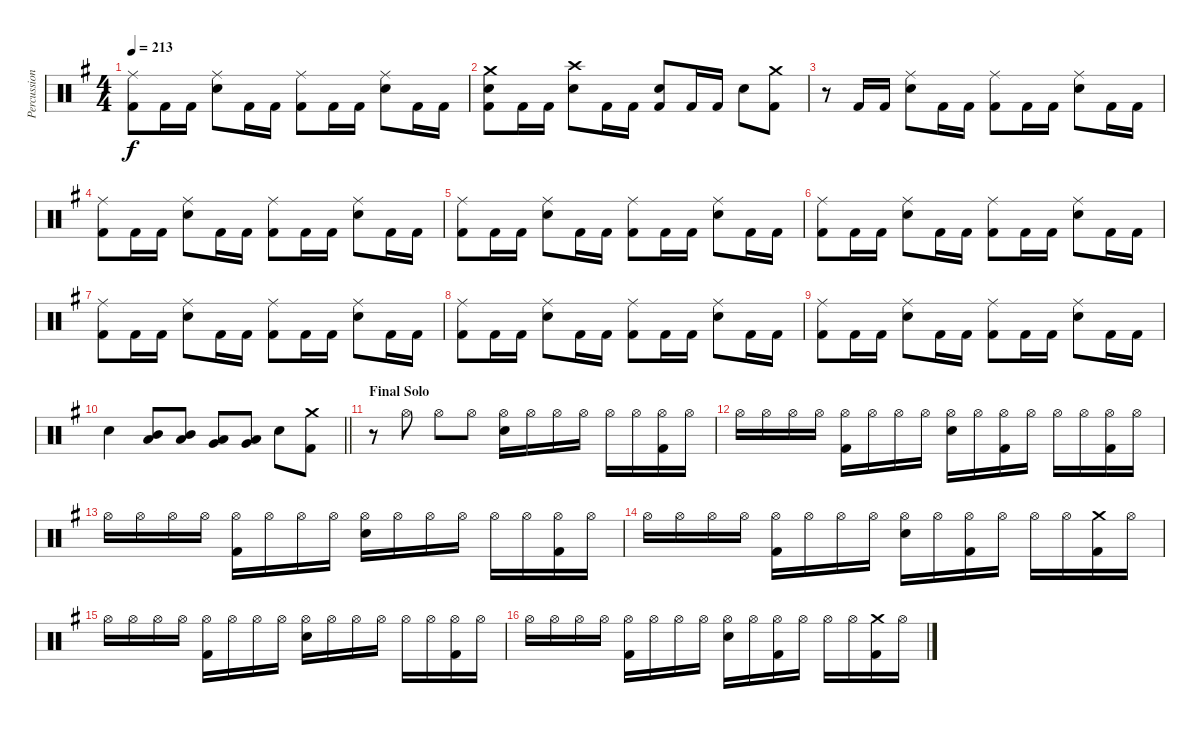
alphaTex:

\track ("Percussion" "Percussion") {instrument percussion}
\staff {score}
\articulation defaults
\ts (4 4)
\tempo 213
\clef neutral
\ks eminor
("Ride (middle)" "Kick (hit) 2").8{dy f} "Kick (hit) 2".16 "Kick (hit) 2".16 ("Ride (middle)" "Snare (hit) 2").8 "Kick (hit) 2".16 "Kick (hit) 2".16 ("Ride (middle)" "Kick (hit) 2").8 "Kick (hit) 2".16 "Kick (hit) 2".16 ("Ride (middle)" "Snare (hit) 2").8 "Kick (hit) 2".16 "Kick (hit) 2".16 |
("Crash medium (hit)" "Snare (hit) 2" "Kick (hit) 2").8 "Kick (hit) 2".16 "Kick (hit) 2".16 ("Crash high (hit)" "Snare (hit) 2").8 "Kick (hit) 2".16 "Kick (hit) 2".16 ("Snare (hit) 2" "Kick (hit) 2").8 "Kick (hit) 2".16 "Kick (hit) 2".16 "Snare (hit) 2".8 ("Crash medium (hit)" "Kick (hit) 2").8 |
r.8 "Kick (hit) 2".16 "Kick (hit) 2".16 ("Ride (middle)" "Snare (hit) 2").8 "Kick (hit) 2".16 "Kick (hit) 2".16 ("Ride (middle)" "Kick (hit) 2").8 "Kick (hit) 2".16 "Kick (hit) 2".16 ("Ride (middle)" "Snare (hit) 2").8 "Kick (hit) 2".16 "Kick (hit) 2".16 |
("Ride (middle)" "Kick (hit) 2").8 "Kick (hit) 2".16 "Kick (hit) 2".16 ("Ride (middle)" "Snare (hit) 2").8 "Kick (hit) 2".16 "Kick (hit) 2".16 ("Ride (middle)" "Kick (hit) 2").8 "Kick (hit) 2".16 "Kick (hit) 2".16 ("Ride (middle)" "Snare (hit) 2").8 "Kick (hit) 2".16 "Kick (hit) 2".16 |
("Ride (middle)" "Kick (hit) 2").8 "Kick (hit) 2".16 "Kick (hit) 2".16 ("Ride (middle)" "Snare (hit) 2").8 "Kick (hit) 2".16 "Kick (hit) 2".16 ("Ride (middle)" "Kick (hit) 2").8 "Kick (hit) 2".16 "Kick (hit) 2".16 ("Ride (middle)" "Snare (hit) 2").8 "Kick (hit) 2".16 "Kick (hit) 2".16 |
("Ride (middle)" "Kick (hit) 2").8 "Kick (hit) 2".16 "Kick (hit) 2".16 ("Ride (middle)" "Snare (hit) 2").8 "Kick (hit) 2".16 "Kick (hit) 2".16 ("Ride (middle)" "Kick (hit) 2").8 "Kick (hit) 2".16 "Kick (hit) 2".16 ("Ride (middle)" "Snare (hit) 2").8 "Kick (hit) 2".16 "Kick (hit) 2".16 |
("Ride (middle)" "Kick (hit) 2").8 "Kick (hit) 2".16 "Kick (hit) 2".16 ("Ride (middle)" "Snare (hit) 2").8 "Kick (hit) 2".16 "Kick (hit) 2".16 ("Ride (middle)" "Kick (hit) 2").8 "Kick (hit) 2".16 "Kick (hit) 2".16 ("Ride (middle)" "Snare (hit) 2").8 "Kick (hit) 2".16 "Kick (hit) 2".16 |
("Ride (middle)" "Kick (hit) 2").8 "Kick (hit) 2".16 "Kick (hit) 2".16 ("Ride (middle)" "Snare (hit) 2").8 "Kick (hit) 2".16 "Kick (hit) 2".16 ("Ride (middle)" "Kick (hit) 2").8 "Kick (hit) 2".16 "Kick (hit) 2".16 ("Ride (middle)" "Snare (hit) 2").8 "Kick (hit) 2".16 "Kick (hit) 2".16 |
("Ride (middle)" "Kick (hit) 2").8 "Kick (hit) 2".16 "Kick (hit) 2".16 ("Ride (middle)" "Snare (hit) 2").8 "Kick (hit) 2".16 "Kick (hit) 2".16 ("Ride (middle)" "Kick (hit) 2").8 "Kick (hit) 2".16 "Kick (hit) 2".16 ("Ride (middle)" "Snare (hit) 2").8 "Kick (hit) 2".16 "Kick (hit) 2".16 |
\barLineRight lightlight "Snare (hit) 2".4
("Mid Tom (hit)" "Low Tom (hit)").8 ("Mid Tom (hit)" "Low Tom (hit)").8 ("Low Tom (hit)" "Very Low Tom (hit)").8 ("Low Tom (hit)" "Very Low Tom (hit)").8 "Snare (hit) 2".8 ("Crash medium (hit)" "Kick (hit) 2").8 |
\section ("" "Final Solo")
r.8 "Hi-Hat (open)".8 "Hi-Hat (open)".8 "Hi-Hat (open)".8 ("Hi-Hat (open)" "Snare (hit) 2").16 "Hi-Hat (open)".16 "Hi-Hat (open)".16 "Hi-Hat (open)".16 "Hi-Hat (open)".16 "Hi-Hat (open)".16 ("Hi-Hat (open)" "Kick (hit) 2").16 "Hi-Hat (open)".16 |
"Hi-Hat (open)".16 "Hi-Hat (open)".16 "Hi-Hat (open)".16 "Hi-Hat (open)".16 ("Hi-Hat (open)" "Kick (hit) 2").16 "Hi-Hat (open)".16 "Hi-Hat (open)".16 "Hi-Hat (open)".16 ("Hi-Hat (open)" "Snare (hit) 2").16 "Hi-Hat (open)".16 ("Hi-Hat (open)" "Kick (hit) 2").16 "Hi-Hat (open)".16 "Hi-Hat (open)".16 "Hi-Hat (open)".16 ("Hi-Hat (open)" "Kick (hit) 2").16 "Hi-Hat (open)".16 |
"Hi-Hat (open)".16 "Hi-Hat (open)".16 "Hi-Hat (open)".16 "Hi-Hat (open)".16 ("Hi-Hat (open)" "Kick (hit) 2").16 "Hi-Hat (open)".16 "Hi-Hat (open)".16 "Hi-Hat (open)".16 ("Hi-Hat (open)" "Snare (hit) 2").16 "Hi-Hat (open)".16 "Hi-Hat (open)".16 "Hi-Hat (open)".16 "Hi-Hat (open)".16 "Hi-Hat (open)".16 ("Hi-Hat (open)" "Kick (hit) 2").16 "Hi-Hat (open)".16 |
"Hi-Hat (open)".16 "Hi-Hat (open)".16 "Hi-Hat (open)".16 "Hi-Hat (open)".16 ("Hi-Hat (open)" "Kick (hit) 2").16 "Hi-Hat (open)".16 "Hi-Hat (open)".16 "Hi-Hat (open)".16 ("Hi-Hat (open)" "Snare (hit) 2").16 "Hi-Hat (open)".16 ("Hi-Hat (open)" "Kick (hit) 2").16 "Hi-Hat (open)".16 "Hi-Hat (open)".16 "Hi-Hat (open)".16 ("Crash medium (hit)" "Kick (hit) 2").16 "Hi-Hat (open)".16 |
"Hi-Hat (open)".16 "Hi-Hat (open)".16 "Hi-Hat (open)".16 "Hi-Hat (open)".16 ("Hi-Hat (open)" "Kick (hit) 2").16 "Hi-Hat (open)".16 "Hi-Hat (open)".16 "Hi-Hat (open)".16 ("Hi-Hat (open)" "Snare (hit) 2").16 "Hi-Hat (open)".16 "Hi-Hat (open)".16 "Hi-Hat (open)".16 "Hi-Hat (open)".16 "Hi-Hat (open)".16 ("Hi-Hat (open)" "Kick (hit) 2").16 "Hi-Hat (open)".16 |
"Hi-Hat (open)".16 "Hi-Hat (open)".16 "Hi-Hat (open)".16 "Hi-Hat (open)".16 ("Hi-Hat (open)" "Kick (hit) 2").16 "Hi-Hat (open)".16 "Hi-Hat (open)".16 "Hi-Hat (open)".16 ("Hi-Hat (open)" "Snare (hit) 2").16 "Hi-Hat (open)".16 ("Hi-Hat (open)" "Kick (hit) 2").16 "Hi-Hat (open)".16 "Hi-Hat (open)".16 "Hi-Hat (open)".16 ("Crash medium (hit)" "Kick (hit) 2").16 "Hi-Hat (open)".16
